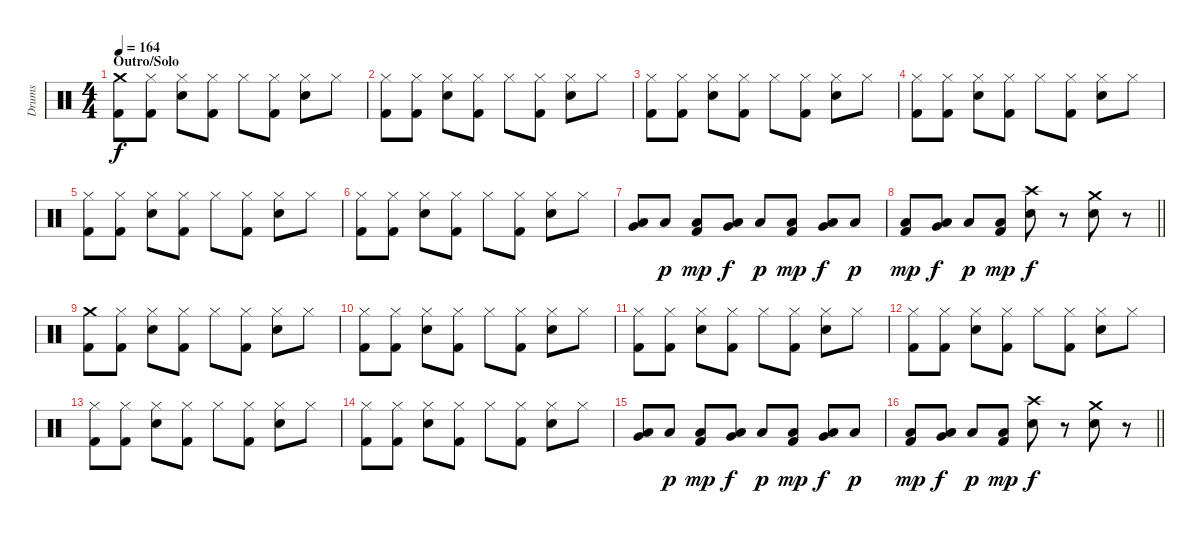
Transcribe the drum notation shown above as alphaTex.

\track ("Drums" "Drums") {instrument percussion}
\staff {score}
\articulation defaults
\ts (4 4)
\section ("" "Outro/Solo")
\tempo 164
\clef neutral
\ks c
("Crash medium (hit)" "Kick (hit) 2").8{dy f} ("Hi-Hat (closed)" "Kick (hit) 2").8 ("Hi-Hat (closed)" "Snare (hit) 2").8 ("Hi-Hat (closed)" "Kick (hit) 2").8 "Hi-Hat (closed)".8 ("Hi-Hat (closed)" "Kick (hit) 2").8 ("Hi-Hat (closed)" "Snare (hit) 2").8 "Hi-Hat (closed)".8 |
("Hi-Hat (closed)" "Kick (hit) 2").8 ("Hi-Hat (closed)" "Kick (hit) 2").8 ("Hi-Hat (closed)" "Snare (hit) 2").8 ("Hi-Hat (closed)" "Kick (hit) 2").8 "Hi-Hat (closed)".8 ("Hi-Hat (closed)" "Kick (hit) 2").8 ("Hi-Hat (closed)" "Snare (hit) 2").8 "Hi-Hat (closed)".8 |
("Hi-Hat (closed)" "Kick (hit) 2").8 ("Hi-Hat (closed)" "Kick (hit) 2").8 ("Hi-Hat (closed)" "Snare (hit) 2").8 ("Hi-Hat (closed)" "Kick (hit) 2").8 "Hi-Hat (closed)".8 ("Hi-Hat (closed)" "Kick (hit) 2").8 ("Hi-Hat (closed)" "Snare (hit) 2").8 "Hi-Hat (closed)".8 |
("Hi-Hat (closed)" "Kick (hit) 2").8 ("Hi-Hat (closed)" "Kick (hit) 2").8 ("Hi-Hat (closed)" "Snare (hit) 2").8 ("Hi-Hat (closed)" "Kick (hit) 2").8 "Hi-Hat (closed)".8 ("Hi-Hat (closed)" "Kick (hit) 2").8 ("Hi-Hat (closed)" "Snare (hit) 2").8 "Hi-Hat (closed)".8 |
("Hi-Hat (closed)" "Kick (hit) 2").8 ("Hi-Hat (closed)" "Kick (hit) 2").8 ("Hi-Hat (closed)" "Snare (hit) 2").8 ("Hi-Hat (closed)" "Kick (hit) 2").8 "Hi-Hat (closed)".8 ("Hi-Hat (closed)" "Kick (hit) 2").8 ("Hi-Hat (closed)" "Snare (hit) 2").8 "Hi-Hat (closed)".8 |
("Hi-Hat (closed)" "Kick (hit) 2").8 ("Hi-Hat (closed)" "Kick (hit) 2").8 ("Hi-Hat (closed)" "Snare (hit) 2").8 ("Hi-Hat (closed)" "Kick (hit) 2").8 "Hi-Hat (closed)".8 ("Hi-Hat (closed)" "Kick (hit) 2").8 ("Hi-Hat (closed)" "Snare (hit) 2").8 "Hi-Hat (closed)".8 |
("Low Tom (hit)" "Very Low Tom (hit)").8 "Low Floor Tom (hit)".8{dy p} ("Low Floor Tom (hit)" "Kick (hit) 2").8{dy mp} ("Low Tom (hit)" "Very Low Tom (hit)").8{dy f} "Low Floor Tom (hit)".8{dy p} ("Low Floor Tom (hit)" "Kick (hit) 2").8{dy mp} ("Low Tom (hit)" "Very Low Tom (hit)").8{dy f} "Low Floor Tom (hit)".8{dy p} |
\barLineRight lightlight
("Low Floor Tom (hit)" "Kick (hit) 2").8{dy mp} ("Low Tom (hit)" "Very Low Tom (hit)").8{dy f} "Low Floor Tom (hit)".8{dy p} ("Low Floor Tom (hit)" "Kick (hit) 2").8{dy mp} ("Crash high (hit)" "Snare (hit) 2").8{dy f} r.8 ("Crash medium (hit)" "Snare (hit) 2").8 r.8 |
("Crash medium (hit)" "Kick (hit) 2").8 ("Hi-Hat (closed)" "Kick (hit) 2").8 ("Hi-Hat (closed)" "Snare (hit) 2").8 ("Hi-Hat (closed)" "Kick (hit) 2").8 "Hi-Hat (closed)".8 ("Hi-Hat (closed)" "Kick (hit) 2").8 ("Hi-Hat (closed)" "Snare (hit) 2").8 "Hi-Hat (closed)".8 |
("Hi-Hat (closed)" "Kick (hit) 2").8 ("Hi-Hat (closed)" "Kick (hit) 2").8 ("Hi-Hat (closed)" "Snare (hit) 2").8 ("Hi-Hat (closed)" "Kick (hit) 2").8 "Hi-Hat (closed)".8 ("Hi-Hat (closed)" "Kick (hit) 2").8 ("Hi-Hat (closed)" "Snare (hit) 2").8 "Hi-Hat (closed)".8 |
("Hi-Hat (closed)" "Kick (hit) 2").8 ("Hi-Hat (closed)" "Kick (hit) 2").8 ("Hi-Hat (closed)" "Snare (hit) 2").8 ("Hi-Hat (closed)" "Kick (hit) 2").8 "Hi-Hat (closed)".8 ("Hi-Hat (closed)" "Kick (hit) 2").8 ("Hi-Hat (closed)" "Snare (hit) 2").8 "Hi-Hat (closed)".8 |
("Hi-Hat (closed)" "Kick (hit) 2").8 ("Hi-Hat (closed)" "Kick (hit) 2").8 ("Hi-Hat (closed)" "Snare (hit) 2").8 ("Hi-Hat (closed)" "Kick (hit) 2").8 "Hi-Hat (closed)".8 ("Hi-Hat (closed)" "Kick (hit) 2").8 ("Hi-Hat (closed)" "Snare (hit) 2").8 "Hi-Hat (closed)".8 |
("Hi-Hat (closed)" "Kick (hit) 2").8 ("Hi-Hat (closed)" "Kick (hit) 2").8 ("Hi-Hat (closed)" "Snare (hit) 2").8 ("Hi-Hat (closed)" "Kick (hit) 2").8 "Hi-Hat (closed)".8 ("Hi-Hat (closed)" "Kick (hit) 2").8 ("Hi-Hat (closed)" "Snare (hit) 2").8 "Hi-Hat (closed)".8 |
("Hi-Hat (closed)" "Kick (hit) 2").8 ("Hi-Hat (closed)" "Kick (hit) 2").8 ("Hi-Hat (closed)" "Snare (hit) 2").8 ("Hi-Hat (closed)" "Kick (hit) 2").8 "Hi-Hat (closed)".8 ("Hi-Hat (closed)" "Kick (hit) 2").8 ("Hi-Hat (closed)" "Snare (hit) 2").8 "Hi-Hat (closed)".8 |
("Low Tom (hit)" "Very Low Tom (hit)").8 "Low Floor Tom (hit)".8{dy p} ("Low Floor Tom (hit)" "Kick (hit) 2").8{dy mp} ("Low Tom (hit)" "Very Low Tom (hit)").8{dy f} "Low Floor Tom (hit)".8{dy p} ("Low Floor Tom (hit)" "Kick (hit) 2").8{dy mp} ("Low Tom (hit)" "Very Low Tom (hit)").8{dy f} "Low Floor Tom (hit)".8{dy p} |
\barLineRight lightlight
("Low Floor Tom (hit)" "Kick (hit) 2").8{dy mp} ("Low Tom (hit)" "Very Low Tom (hit)").8{dy f} "Low Floor Tom (hit)".8{dy p} ("Low Floor Tom (hit)" "Kick (hit) 2").8{dy mp} ("Crash high (hit)" "Snare (hit) 2").8{dy f} r.8 ("Crash medium (hit)" "Snare (hit) 2").8 r.8
